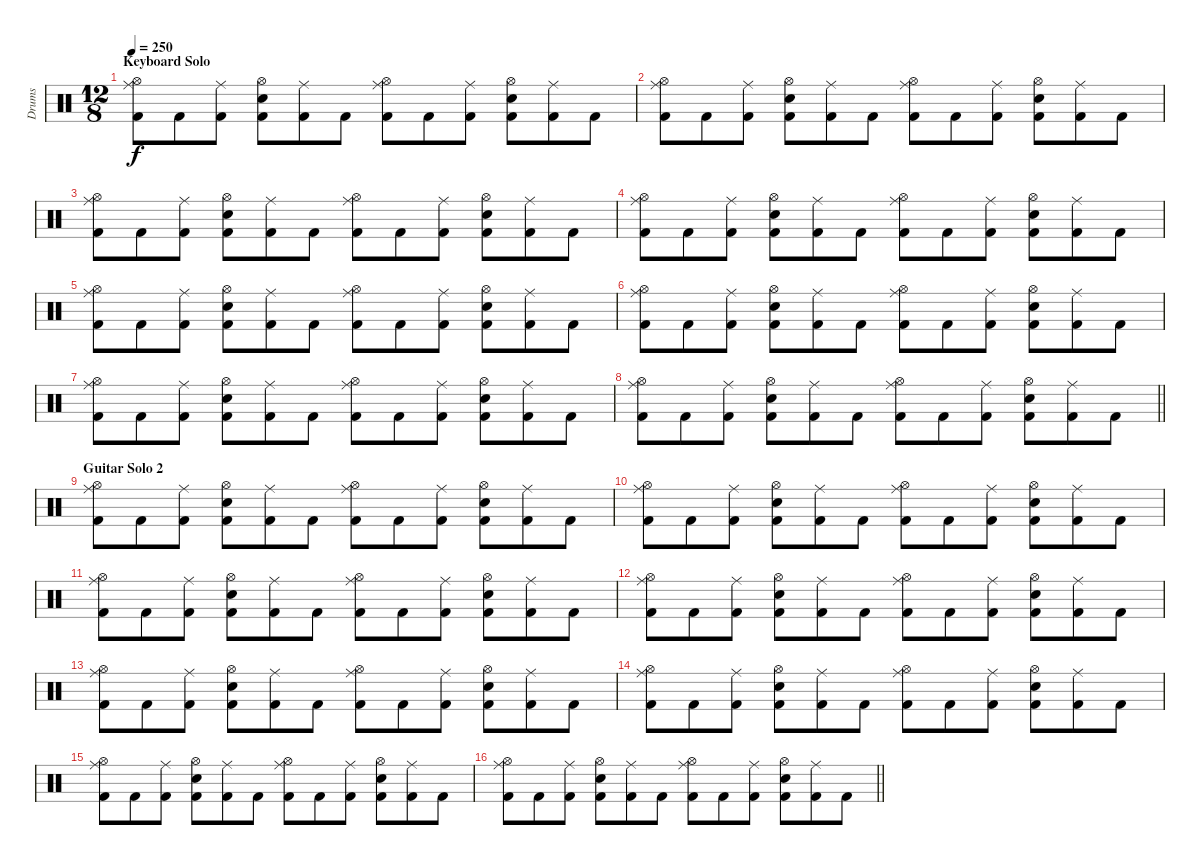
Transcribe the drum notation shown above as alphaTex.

\track ("Drums" "Drums") {instrument percussion}
\staff {score}
\articulation defaults
\ts (12 8)
\section ("" "Keyboard Solo")
\tempo 250
\clef neutral
\ks c
("Ride (middle)" "Hi-Hat (open)" "Kick (hit) 2").8{dy f} "Kick (hit) 2".8 ("Ride (middle)" "Kick (hit) 2").8 ("Hi-Hat (open)" "Snare (hit) 2" "Kick (hit) 2").8 ("Ride (middle)" "Kick (hit) 2").8 "Kick (hit) 2".8 ("Ride (middle)" "Hi-Hat (open)" "Kick (hit) 2").8 "Kick (hit) 2".8 ("Ride (middle)" "Kick (hit) 2").8 ("Hi-Hat (open)" "Snare (hit) 2" "Kick (hit) 2").8 ("Ride (middle)" "Kick (hit) 2").8 "Kick (hit) 2".8 |
("Ride (middle)" "Hi-Hat (open)" "Kick (hit) 2").8 "Kick (hit) 2".8 ("Ride (middle)" "Kick (hit) 2").8 ("Hi-Hat (open)" "Snare (hit) 2" "Kick (hit) 2").8 ("Ride (middle)" "Kick (hit) 2").8 "Kick (hit) 2".8 ("Ride (middle)" "Hi-Hat (open)" "Kick (hit) 2").8 "Kick (hit) 2".8 ("Ride (middle)" "Kick (hit) 2").8 ("Hi-Hat (open)" "Snare (hit) 2" "Kick (hit) 2").8 ("Ride (middle)" "Kick (hit) 2").8 "Kick (hit) 2".8 |
("Ride (middle)" "Hi-Hat (open)" "Kick (hit) 2").8 "Kick (hit) 2".8 ("Ride (middle)" "Kick (hit) 2").8 ("Hi-Hat (open)" "Snare (hit) 2" "Kick (hit) 2").8 ("Ride (middle)" "Kick (hit) 2").8 "Kick (hit) 2".8 ("Ride (middle)" "Hi-Hat (open)" "Kick (hit) 2").8 "Kick (hit) 2".8 ("Ride (middle)" "Kick (hit) 2").8 ("Hi-Hat (open)" "Snare (hit) 2" "Kick (hit) 2").8 ("Ride (middle)" "Kick (hit) 2").8 "Kick (hit) 2".8 |
("Ride (middle)" "Hi-Hat (open)" "Kick (hit) 2").8 "Kick (hit) 2".8 ("Ride (middle)" "Kick (hit) 2").8 ("Hi-Hat (open)" "Snare (hit) 2" "Kick (hit) 2").8 ("Ride (middle)" "Kick (hit) 2").8 "Kick (hit) 2".8 ("Ride (middle)" "Hi-Hat (open)" "Kick (hit) 2").8 "Kick (hit) 2".8 ("Ride (middle)" "Kick (hit) 2").8 ("Hi-Hat (open)" "Snare (hit) 2" "Kick (hit) 2").8 ("Ride (middle)" "Kick (hit) 2").8 "Kick (hit) 2".8 |
("Ride (middle)" "Hi-Hat (open)" "Kick (hit) 2").8 "Kick (hit) 2".8 ("Ride (middle)" "Kick (hit) 2").8 ("Hi-Hat (open)" "Snare (hit) 2" "Kick (hit) 2").8 ("Ride (middle)" "Kick (hit) 2").8 "Kick (hit) 2".8 ("Ride (middle)" "Hi-Hat (open)" "Kick (hit) 2").8 "Kick (hit) 2".8 ("Ride (middle)" "Kick (hit) 2").8 ("Hi-Hat (open)" "Snare (hit) 2" "Kick (hit) 2").8 ("Ride (middle)" "Kick (hit) 2").8 "Kick (hit) 2".8 |
("Ride (middle)" "Hi-Hat (open)" "Kick (hit) 2").8 "Kick (hit) 2".8 ("Ride (middle)" "Kick (hit) 2").8 ("Hi-Hat (open)" "Snare (hit) 2" "Kick (hit) 2").8 ("Ride (middle)" "Kick (hit) 2").8 "Kick (hit) 2".8 ("Ride (middle)" "Hi-Hat (open)" "Kick (hit) 2").8 "Kick (hit) 2".8 ("Ride (middle)" "Kick (hit) 2").8 ("Hi-Hat (open)" "Snare (hit) 2" "Kick (hit) 2").8 ("Ride (middle)" "Kick (hit) 2").8 "Kick (hit) 2".8 |
("Ride (middle)" "Hi-Hat (open)" "Kick (hit) 2").8 "Kick (hit) 2".8 ("Ride (middle)" "Kick (hit) 2").8 ("Hi-Hat (open)" "Snare (hit) 2" "Kick (hit) 2").8 ("Ride (middle)" "Kick (hit) 2").8 "Kick (hit) 2".8 ("Ride (middle)" "Hi-Hat (open)" "Kick (hit) 2").8 "Kick (hit) 2".8 ("Ride (middle)" "Kick (hit) 2").8 ("Hi-Hat (open)" "Snare (hit) 2" "Kick (hit) 2").8 ("Ride (middle)" "Kick (hit) 2").8 "Kick (hit) 2".8 |
\barLineRight lightlight
("Ride (middle)" "Hi-Hat (open)" "Kick (hit) 2").8 "Kick (hit) 2".8 ("Ride (middle)" "Kick (hit) 2").8 ("Hi-Hat (open)" "Snare (hit) 2" "Kick (hit) 2").8 ("Ride (middle)" "Kick (hit) 2").8 "Kick (hit) 2".8 ("Ride (middle)" "Hi-Hat (open)" "Kick (hit) 2").8 "Kick (hit) 2".8 ("Ride (middle)" "Kick (hit) 2").8 ("Hi-Hat (open)" "Snare (hit) 2" "Kick (hit) 2").8 ("Ride (middle)" "Kick (hit) 2").8 "Kick (hit) 2".8 |
\section ("" "Guitar Solo 2")
("Ride (middle)" "Hi-Hat (open)" "Kick (hit) 2").8 "Kick (hit) 2".8 ("Ride (middle)" "Kick (hit) 2").8 ("Hi-Hat (open)" "Snare (hit) 2" "Kick (hit) 2").8 ("Ride (middle)" "Kick (hit) 2").8 "Kick (hit) 2".8 ("Ride (middle)" "Hi-Hat (open)" "Kick (hit) 2").8 "Kick (hit) 2".8 ("Ride (middle)" "Kick (hit) 2").8 ("Hi-Hat (open)" "Snare (hit) 2" "Kick (hit) 2").8 ("Ride (middle)" "Kick (hit) 2").8 "Kick (hit) 2".8 |
("Ride (middle)" "Hi-Hat (open)" "Kick (hit) 2").8 "Kick (hit) 2".8 ("Ride (middle)" "Kick (hit) 2").8 ("Hi-Hat (open)" "Snare (hit) 2" "Kick (hit) 2").8 ("Ride (middle)" "Kick (hit) 2").8 "Kick (hit) 2".8 ("Ride (middle)" "Hi-Hat (open)" "Kick (hit) 2").8 "Kick (hit) 2".8 ("Ride (middle)" "Kick (hit) 2").8 ("Hi-Hat (open)" "Snare (hit) 2" "Kick (hit) 2").8 ("Ride (middle)" "Kick (hit) 2").8 "Kick (hit) 2".8 |
("Ride (middle)" "Hi-Hat (open)" "Kick (hit) 2").8 "Kick (hit) 2".8 ("Ride (middle)" "Kick (hit) 2").8 ("Hi-Hat (open)" "Snare (hit) 2" "Kick (hit) 2").8 ("Ride (middle)" "Kick (hit) 2").8 "Kick (hit) 2".8 ("Ride (middle)" "Hi-Hat (open)" "Kick (hit) 2").8 "Kick (hit) 2".8 ("Ride (middle)" "Kick (hit) 2").8 ("Hi-Hat (open)" "Snare (hit) 2" "Kick (hit) 2").8 ("Ride (middle)" "Kick (hit) 2").8 "Kick (hit) 2".8 |
("Ride (middle)" "Hi-Hat (open)" "Kick (hit) 2").8 "Kick (hit) 2".8 ("Ride (middle)" "Kick (hit) 2").8 ("Hi-Hat (open)" "Snare (hit) 2" "Kick (hit) 2").8 ("Ride (middle)" "Kick (hit) 2").8 "Kick (hit) 2".8 ("Ride (middle)" "Hi-Hat (open)" "Kick (hit) 2").8 "Kick (hit) 2".8 ("Ride (middle)" "Kick (hit) 2").8 ("Hi-Hat (open)" "Snare (hit) 2" "Kick (hit) 2").8 ("Ride (middle)" "Kick (hit) 2").8 "Kick (hit) 2".8 |
("Ride (middle)" "Hi-Hat (open)" "Kick (hit) 2").8 "Kick (hit) 2".8 ("Ride (middle)" "Kick (hit) 2").8 ("Hi-Hat (open)" "Snare (hit) 2" "Kick (hit) 2").8 ("Ride (middle)" "Kick (hit) 2").8 "Kick (hit) 2".8 ("Ride (middle)" "Hi-Hat (open)" "Kick (hit) 2").8 "Kick (hit) 2".8 ("Ride (middle)" "Kick (hit) 2").8 ("Hi-Hat (open)" "Snare (hit) 2" "Kick (hit) 2").8 ("Ride (middle)" "Kick (hit) 2").8 "Kick (hit) 2".8 |
("Ride (middle)" "Hi-Hat (open)" "Kick (hit) 2").8 "Kick (hit) 2".8 ("Ride (middle)" "Kick (hit) 2").8 ("Hi-Hat (open)" "Snare (hit) 2" "Kick (hit) 2").8 ("Ride (middle)" "Kick (hit) 2").8 "Kick (hit) 2".8 ("Ride (middle)" "Hi-Hat (open)" "Kick (hit) 2").8 "Kick (hit) 2".8 ("Ride (middle)" "Kick (hit) 2").8 ("Hi-Hat (open)" "Snare (hit) 2" "Kick (hit) 2").8 ("Ride (middle)" "Kick (hit) 2").8 "Kick (hit) 2".8 |
("Ride (middle)" "Hi-Hat (open)" "Kick (hit) 2").8 "Kick (hit) 2".8 ("Ride (middle)" "Kick (hit) 2").8 ("Hi-Hat (open)" "Snare (hit) 2" "Kick (hit) 2").8 ("Ride (middle)" "Kick (hit) 2").8 "Kick (hit) 2".8 ("Ride (middle)" "Hi-Hat (open)" "Kick (hit) 2").8 "Kick (hit) 2".8 ("Ride (middle)" "Kick (hit) 2").8 ("Hi-Hat (open)" "Snare (hit) 2" "Kick (hit) 2").8 ("Ride (middle)" "Kick (hit) 2").8 "Kick (hit) 2".8 |
\barLineRight lightlight
("Ride (middle)" "Hi-Hat (open)" "Kick (hit) 2").8 "Kick (hit) 2".8 ("Ride (middle)" "Kick (hit) 2").8 ("Hi-Hat (open)" "Snare (hit) 2" "Kick (hit) 2").8 ("Ride (middle)" "Kick (hit) 2").8 "Kick (hit) 2".8 ("Ride (middle)" "Hi-Hat (open)" "Kick (hit) 2").8 "Kick (hit) 2".8 ("Ride (middle)" "Kick (hit) 2").8 ("Hi-Hat (open)" "Snare (hit) 2" "Kick (hit) 2").8 ("Ride (middle)" "Kick (hit) 2").8 "Kick (hit) 2".8
